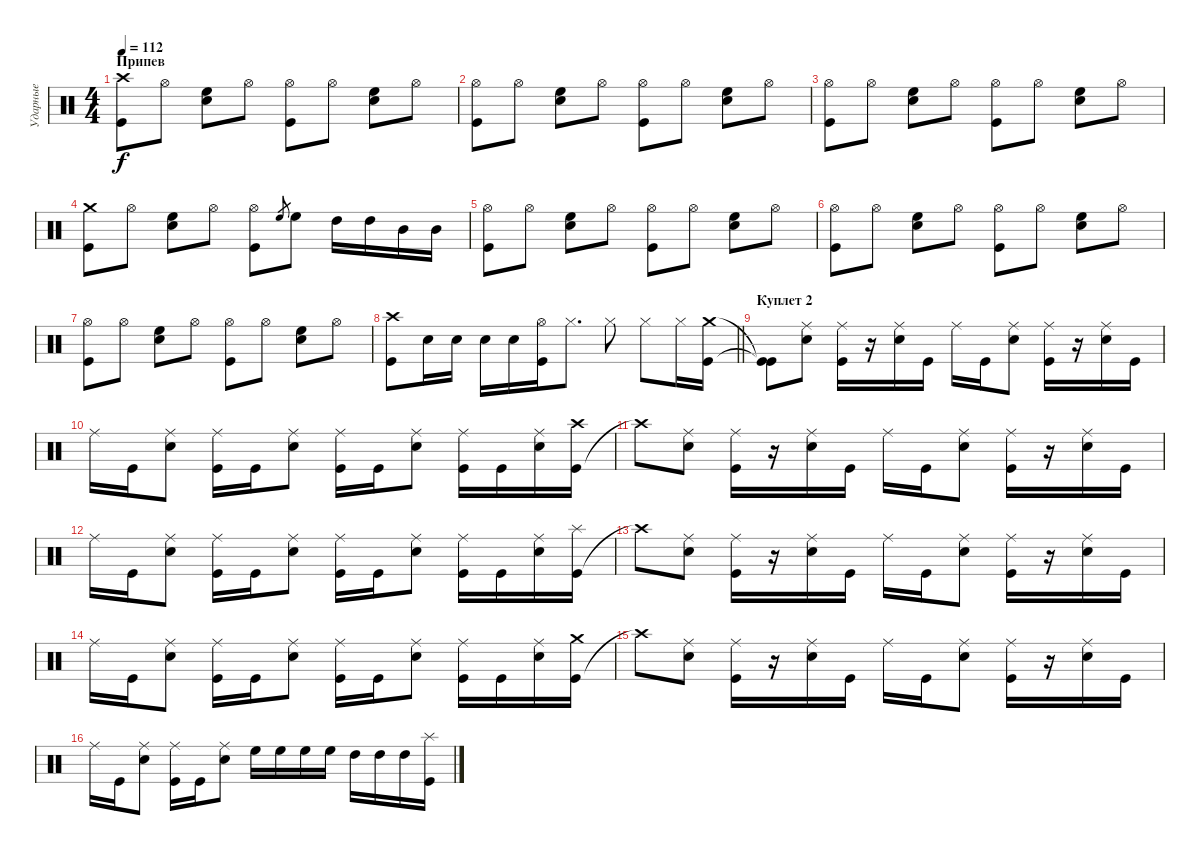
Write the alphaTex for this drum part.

\track ("Ударные" "Ударные") {instrument percussion}
\staff {score}
\articulation defaults
\ts (4 4)
\section ("" "Припев")
\tempo 112
\clef neutral
\ks aminor
("Kick (hit)" "Crash high (hit)").8{dy f} "Hi-Hat (open)".8 ("High Floor Tom (hit)" "Electric Snare (hit)").8 "Hi-Hat (open)".8 ("Kick (hit)" "Hi-Hat (open)").8 "Hi-Hat (open)".8 ("High Floor Tom (hit)" "Electric Snare (hit)").8 "Hi-Hat (open)".8 |
("Kick (hit)" "Hi-Hat (open)").8 "Hi-Hat (open)".8 ("High Floor Tom (hit)" "Electric Snare (hit)").8 "Hi-Hat (open)".8 ("Kick (hit)" "Hi-Hat (open)").8 "Hi-Hat (open)".8 ("High Floor Tom (hit)" "Electric Snare (hit)").8 "Hi-Hat (open)".8 |
("Kick (hit)" "Hi-Hat (open)").8 "Hi-Hat (open)".8 ("High Floor Tom (hit)" "Electric Snare (hit)").8 "Hi-Hat (open)".8 ("Kick (hit)" "Hi-Hat (open)").8 "Hi-Hat (open)".8 ("High Floor Tom (hit)" "Electric Snare (hit)").8 "Hi-Hat (open)".8 |
("Kick (hit)" "Crash medium (hit)").8 "Hi-Hat (open)".8 ("High Floor Tom (hit)" "Electric Snare (hit)").8 "Hi-Hat (open)".8 ("Kick (hit)" "Hi-Hat (open)").8 "High Floor Tom (hit)".8{gr} "High Floor Tom (hit)".8 "High Tom (hit)".16 "High Tom (hit)".16 "Mid Tom (hit)".16 "Mid Tom (hit)".16 |
("Kick (hit)" "Hi-Hat (open)").8 "Hi-Hat (open)".8 ("High Floor Tom (hit)" "Electric Snare (hit)").8 "Hi-Hat (open)".8 ("Kick (hit)" "Hi-Hat (open)").8 "Hi-Hat (open)".8 ("High Floor Tom (hit)" "Electric Snare (hit)").8 "Hi-Hat (open)".8 |
("Kick (hit)" "Hi-Hat (open)").8 "Hi-Hat (open)".8 ("High Floor Tom (hit)" "Electric Snare (hit)").8 "Hi-Hat (open)".8 ("Kick (hit)" "Hi-Hat (open)").8 "Hi-Hat (open)".8 ("High Floor Tom (hit)" "Electric Snare (hit)").8 "Hi-Hat (open)".8 |
("Kick (hit)" "Hi-Hat (open)").8 "Hi-Hat (open)".8 ("High Floor Tom (hit)" "Electric Snare (hit)").8 "Hi-Hat (open)".8 ("Kick (hit)" "Hi-Hat (open)").8 "Hi-Hat (open)".8 ("High Floor Tom (hit)" "Electric Snare (hit)").8 "Hi-Hat (open)".8 |
\barLineRight lightlight
("Kick (hit)" "Crash high (hit)").8 "Electric Snare (hit)".16 "Electric Snare (hit)".16 "Electric Snare (hit)".16 "Electric Snare (hit)".16 ("Kick (hit)" "Hi-Hat (open)").16 "Hi-Hat (closed)".8{d} "Hi-Hat (closed)".8 "Hi-Hat (closed)".8 "Hi-Hat (closed)".16 ("Kick (hit)" "Crash medium (hit)").16 |
\section ("" "Куплет 2")
("Kick (hit)"{t} "Kick (hit)"{t}).8 ("Electric Snare (hit)" "Ride (middle)").8 ("Kick (hit)" "Ride (middle)").16 r.16 ("Electric Snare (hit)" "Ride (middle)").16 "Kick (hit)".16 "Ride (middle)".16 "Kick (hit)".16 ("Electric Snare (hit)" "Ride (middle)").8 ("Kick (hit)" "Ride (middle)").16 r.16 ("Electric Snare (hit)" "Ride (middle)").16 "Kick (hit)".16 |
"Ride (middle)".16 "Kick (hit)".16 ("Electric Snare (hit)" "Ride (middle)").8 ("Kick (hit)" "Ride (middle)").16 "Kick (hit)".16 ("Electric Snare (hit)" "Ride (middle)").8 ("Kick (hit)" "Ride (middle)").16 "Kick (hit)".16 ("Electric Snare (hit)" "Ride (middle)").8 ("Kick (hit)" "Ride (middle)").16 "Kick (hit)".16 ("Electric Snare (hit)" "Ride (middle)").16 ("Kick (hit)" "Crash high (hit)").16 |
"Crash high (hit)"{t}.8 ("Electric Snare (hit)" "Ride (middle)").8 ("Kick (hit)" "Ride (middle)").16 r.16 ("Electric Snare (hit)" "Ride (middle)").16 "Kick (hit)".16 "Ride (middle)".16 "Kick (hit)".16 ("Electric Snare (hit)" "Ride (middle)").8 ("Kick (hit)" "Ride (middle)").16 r.16 ("Electric Snare (hit)" "Ride (middle)").16 "Kick (hit)".16 |
"Ride (middle)".16 "Kick (hit)".16 ("Electric Snare (hit)" "Ride (middle)").8 ("Kick (hit)" "Ride (middle)").16 "Kick (hit)".16 ("Electric Snare (hit)" "Ride (middle)").8 ("Kick (hit)" "Ride (middle)").16 "Kick (hit)".16 ("Electric Snare (hit)" "Ride (middle)").8 ("Kick (hit)" "Ride (middle)").16 "Kick (hit)".16 ("Electric Snare (hit)" "Ride (middle)").16 ("Kick (hit)" "Splash (hit)").16 |
"Crash high (hit)"{t}.8 ("Electric Snare (hit)" "Ride (middle)").8 ("Kick (hit)" "Ride (middle)").16 r.16 ("Electric Snare (hit)" "Ride (middle)").16 "Kick (hit)".16 "Ride (middle)".16 "Kick (hit)".16 ("Electric Snare (hit)" "Ride (middle)").8 ("Kick (hit)" "Ride (middle)").16 r.16 ("Electric Snare (hit)" "Ride (middle)").16 "Kick (hit)".16 |
"Ride (middle)".16 "Kick (hit)".16 ("Electric Snare (hit)" "Ride (middle)").8 ("Kick (hit)" "Ride (middle)").16 "Kick (hit)".16 ("Electric Snare (hit)" "Ride (middle)").8 ("Kick (hit)" "Ride (middle)").16 "Kick (hit)".16 ("Electric Snare (hit)" "Ride (middle)").8 ("Kick (hit)" "Ride (middle)").16 "Kick (hit)".16 ("Electric Snare (hit)" "Ride (middle)").16 ("Kick (hit)" "Crash medium (hit)").16 |
"Crash high (hit)"{t}.8 ("Electric Snare (hit)" "Ride (middle)").8 ("Kick (hit)" "Ride (middle)").16 r.16 ("Electric Snare (hit)" "Ride (middle)").16 "Kick (hit)".16 "Ride (middle)".16 "Kick (hit)".16 ("Electric Snare (hit)" "Ride (middle)").8 ("Kick (hit)" "Ride (middle)").16 r.16 ("Electric Snare (hit)" "Ride (middle)").16 "Kick (hit)".16 |
"Ride (middle)".16 "Kick (hit)".16 ("Electric Snare (hit)" "Ride (middle)").8 ("Kick (hit)" "Ride (middle)").16 "Kick (hit)".16 ("Electric Snare (hit)" "Ride (middle)").8 "High Floor Tom (hit)".16 "High Floor Tom (hit)".16 "High Floor Tom (hit)".16 "High Floor Tom (hit)".16 "High Tom (hit)".16 "High Tom (hit)".16 "High Tom (hit)".16 ("Kick (hit)" "Splash (hit)").16
